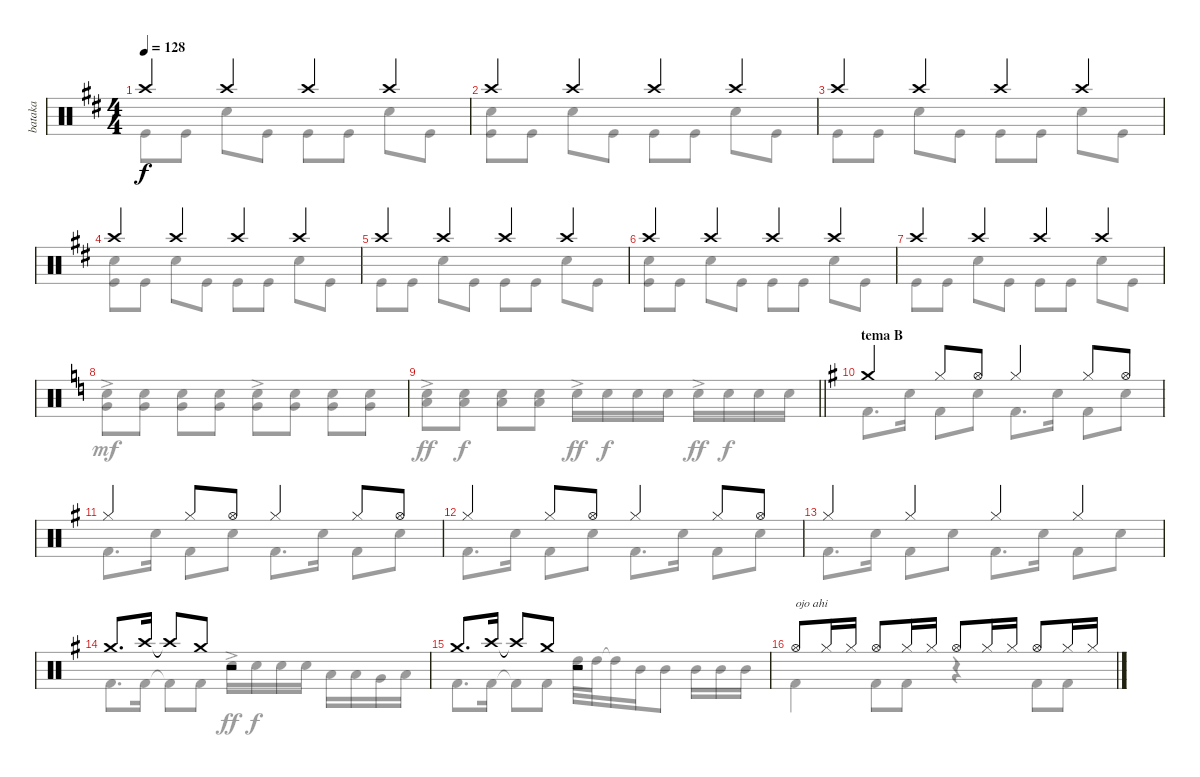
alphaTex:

\track ("bataka" "bataka") {mute instrument percussion}
\staff {score}
\articulation defaults
\voice
\ts (4 4)
\tempo 128
\clef neutral
\ks bminor "Crash high (hit)".4{dy f} "Crash high (hit)".4 "Crash high (hit)".4 "Crash high (hit)".4
|
"Crash high (hit)".4 "Crash high (hit)".4 "Crash high (hit)".4 "Crash high (hit)".4 |
"Crash high (hit)".4 "Crash high (hit)".4 "Crash high (hit)".4 "Crash high (hit)".4 |
"Crash high (hit)".4 "Crash high (hit)".4 "Crash high (hit)".4 "Crash high (hit)".4 |
"Crash high (hit)".4 "Crash high (hit)".4 "Crash high (hit)".4 "Crash high (hit)".4 |
"Crash high (hit)".4 "Crash high (hit)".4 "Crash high (hit)".4 "Crash high (hit)".4 |
"Crash high (hit)".4 "Crash high (hit)".4 "Crash high (hit)".4 "Crash high (hit)".4 |
\ks c
|
\barLineRight lightlight
|
\section ("" "tema B")
\ks eminor "Crash medium (hit)".4 "Hi-Hat (closed)".8 "Hi-Hat (open)".8 "Hi-Hat (closed)".4 "Hi-Hat (closed)".8 "Hi-Hat (open)".8
|
"Hi-Hat (closed)".4 "Hi-Hat (closed)".8 "Hi-Hat (open)".8 "Hi-Hat (closed)".4 "Hi-Hat (closed)".8 "Hi-Hat (open)".8 |
"Hi-Hat (closed)".4 "Hi-Hat (closed)".8 "Hi-Hat (open)".8 "Hi-Hat (closed)".4 "Hi-Hat (closed)".8 "Hi-Hat (open)".8 |
"Hi-Hat (closed)".4 "Hi-Hat (closed)".4 "Hi-Hat (closed)".4 "Hi-Hat (closed)".4 |
"Crash medium (hit)".8{d} "Crash high (hit)".16 "Crash high (hit)"{t}.8 "Crash medium (hit)".8 r.2 |
"Crash medium (hit)".8{d} "Crash high (hit)".16 "Crash high (hit)"{t}.8 "Crash medium (hit)".8 r.2 |
"Hi-Hat (open)".8{txt "ojo ahi"} "Hi-Hat (closed)".16 "Hi-Hat (closed)".16 "Hi-Hat (open)".8 "Hi-Hat (closed)".16 "Hi-Hat (closed)".16 "Hi-Hat (open)".8 "Hi-Hat (closed)".16 "Hi-Hat (closed)".16 "Hi-Hat (open)".8 "Hi-Hat (closed)".16 "Hi-Hat (closed)".16
\voice
\clef neutral
\ottava regular
\simile none
\ks bminor "Kick (hit)".8{dy f} "Kick (hit)".8 "Snare (hit) 2".8 "Kick (hit)".8 "Kick (hit)".8 "Kick (hit)".8 "Snare (hit) 2".8 "Kick (hit)".8
|
("Kick (hit)" "Snare (hit) 2").8 "Kick (hit)".8 "Snare (hit) 2".8 "Kick (hit)".8 "Kick (hit)".8 "Kick (hit)".8 "Snare (hit) 2".8 "Kick (hit)".8 |
"Kick (hit)".8 "Kick (hit)".8 "Snare (hit) 2".8 "Kick (hit)".8 "Kick (hit)".8 "Kick (hit)".8 "Snare (hit) 2".8 "Kick (hit)".8 |
("Kick (hit)" "Snare (hit) 2").8 "Kick (hit)".8 "Snare (hit) 2".8 "Kick (hit)".8 "Kick (hit)".8 "Kick (hit)".8 "Snare (hit) 2".8 "Kick (hit)".8 |
"Kick (hit)".8 "Kick (hit)".8 "Snare (hit) 2".8 "Kick (hit)".8 "Kick (hit)".8 "Kick (hit)".8 "Snare (hit) 2".8 "Kick (hit)".8 |
("Kick (hit)" "Snare (hit) 2").8 "Kick (hit)".8 "Snare (hit) 2".8 "Kick (hit)".8 "Kick (hit)".8 "Kick (hit)".8 "Snare (hit) 2".8 "Kick (hit)".8 |
"Kick (hit)".8 "Kick (hit)".8 "Snare (hit) 2".8 "Kick (hit)".8 "Kick (hit)".8 "Kick (hit)".8 "Snare (hit) 2".8 "Kick (hit)".8 |
\ks c
("Very Low Tom (hit)" "Snare (hit) 2"{ac}).8{dy mf} ("Snare (hit) 2" "Very Low Tom (hit)").8 ("Very Low Tom (hit)" "Snare (hit) 2").8 ("Very Low Tom (hit)" "Snare (hit) 2").8 ("Very Low Tom (hit)" "Snare (hit) 2"{ac}).8 ("Very Low Tom (hit)" "Snare (hit) 2").8 ("Very Low Tom (hit)" "Snare (hit) 2").8 ("Very Low Tom (hit)" "Snare (hit) 2").8 |
\barLineRight lightlight
("Low Floor Tom (hit)" "Snare (hit) 2"{ac}).8{dy ff} ("Snare (hit) 2" "Low Floor Tom (hit)").8{dy f} ("Low Floor Tom (hit)" "Snare (hit) 2").8 ("Snare (hit) 2" "Low Floor Tom (hit)").8 "Snare (hit) 2"{ac}.16{dy ff} "Snare (hit) 2".16{dy f} "Snare (hit) 2".16 "Snare (hit) 2".16 "Snare (hit) 2"{ac}.16{dy ff} "Snare (hit) 2".16{dy f} "Snare (hit) 2".16 "Snare (hit) 2".16 |
\ks eminor "Kick (hit) 2".8{d} "Snare (hit) 2".16 "Kick (hit) 2".8 "Snare (hit) 2".8 "Kick (hit) 2".8{d} "Snare (hit) 2".16 "Kick (hit) 2".8 "Snare (hit) 2".8
|
"Kick (hit) 2".8{d} "Snare (hit) 2".16 "Kick (hit) 2".8 "Snare (hit) 2".8 "Kick (hit) 2".8{d} "Snare (hit) 2".16 "Kick (hit) 2".8 "Snare (hit) 2".8 |
"Kick (hit) 2".8{d} "Snare (hit) 2".16 "Kick (hit) 2".8 "Snare (hit) 2".8 "Kick (hit) 2".8{d} "Snare (hit) 2".16 "Kick (hit) 2".8 "Snare (hit) 2".8 |
"Kick (hit) 2".8{d} "Snare (hit) 2".16 "Kick (hit) 2".8 "Snare (hit) 2".8 "Kick (hit) 2".8{d} "Snare (hit) 2".16 "Kick (hit) 2".8 "Snare (hit) 2".8 |
"Kick (hit) 2".8{d} "Kick (hit) 2".16 "Kick (hit) 2"{t}.8 "Kick (hit) 2".8 "Snare (hit) 2"{ac}.16{dy ff} "Snare (hit) 2".16{dy f} "Snare (hit) 2".16 "Snare (hit) 2".16 "Low Tom (hit)".16 "Low Tom (hit)".16 "Very Low Tom (hit)".16 "Low Floor Tom (hit)".16 |
"Kick (hit) 2".8{d} "Kick (hit) 2".16 "Kick (hit) 2"{t}.8 "Kick (hit) 2".8 "High Tom (hit)".32 "High Tom (hit)".32 "High Tom (hit)"{t}.16 "Mid Tom (hit)".16 "Mid Tom (hit)".8 "Mid Tom (hit)".16 "Mid Tom (hit)".16 "Mid Tom (hit)".16 |
"Kick (hit) 2".4 "Kick (hit) 2".8 "Kick (hit) 2".8 r.4 "Kick (hit) 2".8 "Kick (hit) 2".8
